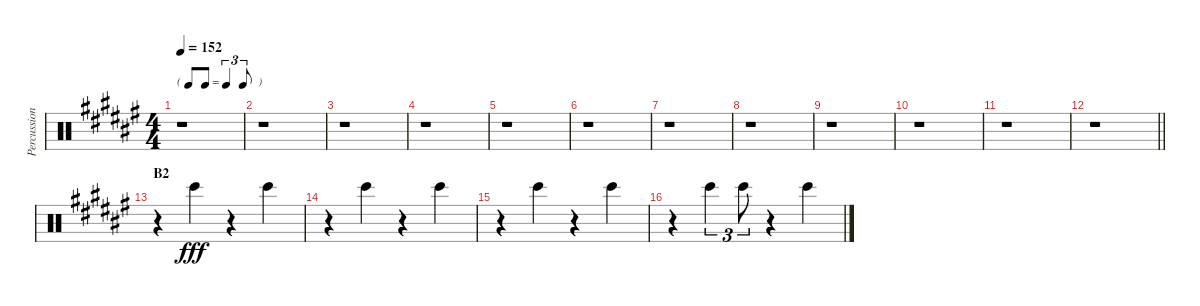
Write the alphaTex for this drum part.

\track ("Percussion" "Percussion") {instrument percussion}
\staff {score}
\articulation defaults
\ts (4 4)
\tf triplet8th
\tempo 152
\clef neutral
\ks f#
r.1{dy fff} |
r.1 |
r.1 |
r.1 |
r.1 |
r.1 |
r.1 |
r.1 |
r.1 |
r.1 |
r.1 |
\barLineRight lightlight
r.1 |
\section ("" "B2")
r.4 "Bongo High (hit)".4 r.4 "Bongo High (hit)".4 |
r.4 "Bongo High (hit)".4 r.4 "Bongo High (hit)".4 |
r.4 "Bongo High (hit)".4 r.4 "Bongo High (hit)".4 |
r.4 "Bongo High (hit)".4{tu (3 2)} "Bongo High (hit)".8{tu (3 2)} r.4 "Bongo High (hit)".4
